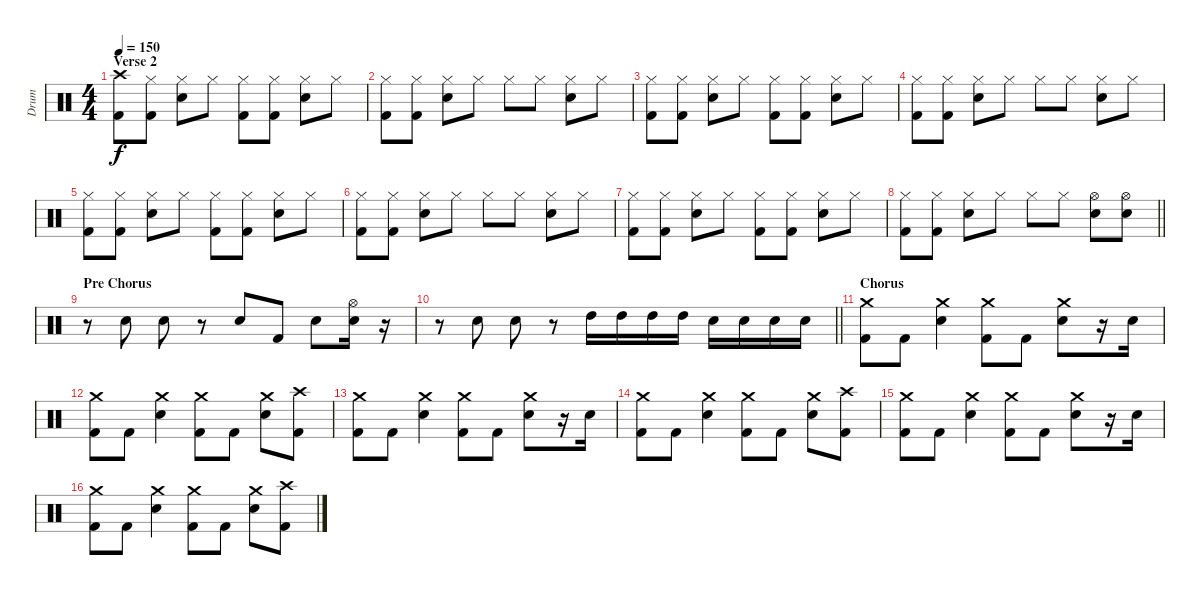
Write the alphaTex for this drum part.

\track ("Drum" "Drum") {instrument percussion}
\staff {score}
\articulation defaults
\ts (4 4)
\section ("" "Verse 2")
\tempo 150
\clef neutral
\ks c
("Crash high (hit)" "Kick (hit) 2").8{dy f} ("Hi-Hat (closed)" "Kick (hit) 2").8 ("Hi-Hat (closed)" "Electric Snare (hit)").8 "Hi-Hat (closed)".8 ("Hi-Hat (closed)" "Kick (hit) 2").8 ("Hi-Hat (closed)" "Kick (hit) 2").8 ("Hi-Hat (closed)" "Electric Snare (hit)").8 "Hi-Hat (closed)".8 |
("Hi-Hat (closed)" "Kick (hit) 2").8 ("Hi-Hat (closed)" "Kick (hit) 2").8 ("Hi-Hat (closed)" "Electric Snare (hit)").8 "Hi-Hat (closed)".8 "Hi-Hat (closed)".8 "Hi-Hat (closed)".8 ("Hi-Hat (closed)" "Electric Snare (hit)").8 "Hi-Hat (closed)".8 |
("Hi-Hat (closed)" "Kick (hit) 2").8 ("Hi-Hat (closed)" "Kick (hit) 2").8 ("Hi-Hat (closed)" "Electric Snare (hit)").8 "Hi-Hat (closed)".8 ("Hi-Hat (closed)" "Kick (hit) 2").8 ("Hi-Hat (closed)" "Kick (hit) 2").8 ("Hi-Hat (closed)" "Electric Snare (hit)").8 "Hi-Hat (closed)".8 |
("Hi-Hat (closed)" "Kick (hit) 2").8 ("Hi-Hat (closed)" "Kick (hit) 2").8 ("Hi-Hat (closed)" "Electric Snare (hit)").8 "Hi-Hat (closed)".8 "Hi-Hat (closed)".8 "Hi-Hat (closed)".8 ("Hi-Hat (closed)" "Electric Snare (hit)").8 "Hi-Hat (closed)".8 |
("Hi-Hat (closed)" "Kick (hit) 2").8 ("Hi-Hat (closed)" "Kick (hit) 2").8 ("Hi-Hat (closed)" "Electric Snare (hit)").8 "Hi-Hat (closed)".8 ("Hi-Hat (closed)" "Kick (hit) 2").8 ("Hi-Hat (closed)" "Kick (hit) 2").8 ("Hi-Hat (closed)" "Electric Snare (hit)").8 "Hi-Hat (closed)".8 |
("Hi-Hat (closed)" "Kick (hit) 2").8 ("Hi-Hat (closed)" "Kick (hit) 2").8 ("Hi-Hat (closed)" "Electric Snare (hit)").8 "Hi-Hat (closed)".8 "Hi-Hat (closed)".8 "Hi-Hat (closed)".8 ("Hi-Hat (closed)" "Electric Snare (hit)").8 "Hi-Hat (closed)".8 |
("Hi-Hat (closed)" "Kick (hit) 2").8 ("Hi-Hat (closed)" "Kick (hit) 2").8 ("Hi-Hat (closed)" "Electric Snare (hit)").8 "Hi-Hat (closed)".8 ("Hi-Hat (closed)" "Kick (hit) 2").8 ("Hi-Hat (closed)" "Kick (hit) 2").8 ("Hi-Hat (closed)" "Electric Snare (hit)").8 "Hi-Hat (closed)".8 |
\barLineRight lightlight
("Hi-Hat (closed)" "Kick (hit) 2").8 ("Hi-Hat (closed)" "Kick (hit) 2").8 ("Hi-Hat (closed)" "Electric Snare (hit)").8 "Hi-Hat (closed)".8 "Hi-Hat (closed)".8 "Hi-Hat (closed)".8 ("Hi-Hat (open)" "Electric Snare (hit)").8 ("Hi-Hat (open)" "Electric Snare (hit)").8 |
\section ("" "Pre Chorus")
r.8 "Electric Snare (hit)".8 "Electric Snare (hit)".8 r.8 "Electric Snare (hit)".8 "Kick (hit) 2".8 "Electric Snare (hit)".8 ("Hi-Hat (open)" "Electric Snare (hit)").16 r.16 |
\barLineRight lightlight
r.8 "Electric Snare (hit)".8 "Electric Snare (hit)".8 r.8 "High Tom (hit)".16 "High Tom (hit)".16 "High Tom (hit)".16 "High Tom (hit)".16 "Electric Snare (hit)".16 "Electric Snare (hit)".16 "Electric Snare (hit)".16 "Electric Snare (hit)".16 |
\section ("" "Chorus")
("Crash medium (hit)" "Kick (hit) 2").8 "Kick (hit) 2".8 ("Crash medium (hit)" "Electric Snare (hit)").4 ("Crash medium (hit)" "Kick (hit) 2").8 "Kick (hit) 2".8 ("Crash medium (hit)" "Electric Snare (hit)").8 r.16 "Electric Snare (hit)".16 |
("Crash medium (hit)" "Kick (hit) 2").8 "Kick (hit) 2".8 ("Crash medium (hit)" "Electric Snare (hit)").4 ("Crash medium (hit)" "Kick (hit) 2").8 "Kick (hit) 2".8 ("Crash medium (hit)" "Electric Snare (hit)").8 ("Crash high (hit)" "Kick (hit) 2").8 |
("Crash medium (hit)" "Kick (hit) 2").8 "Kick (hit) 2".8 ("Crash medium (hit)" "Electric Snare (hit)").4 ("Crash medium (hit)" "Kick (hit) 2").8 "Kick (hit) 2".8 ("Crash medium (hit)" "Electric Snare (hit)").8 r.16 "Electric Snare (hit)".16 |
("Crash medium (hit)" "Kick (hit) 2").8 "Kick (hit) 2".8 ("Crash medium (hit)" "Electric Snare (hit)").4 ("Crash medium (hit)" "Kick (hit) 2").8 "Kick (hit) 2".8 ("Crash medium (hit)" "Electric Snare (hit)").8 ("Crash high (hit)" "Kick (hit) 2").8 |
("Crash medium (hit)" "Kick (hit) 2").8 "Kick (hit) 2".8 ("Crash medium (hit)" "Electric Snare (hit)").4 ("Crash medium (hit)" "Kick (hit) 2").8 "Kick (hit) 2".8 ("Crash medium (hit)" "Electric Snare (hit)").8 r.16 "Electric Snare (hit)".16 |
("Crash medium (hit)" "Kick (hit) 2").8 "Kick (hit) 2".8 ("Crash medium (hit)" "Electric Snare (hit)").4 ("Crash medium (hit)" "Kick (hit) 2").8 "Kick (hit) 2".8 ("Crash medium (hit)" "Electric Snare (hit)").8 ("Crash high (hit)" "Kick (hit) 2").8
